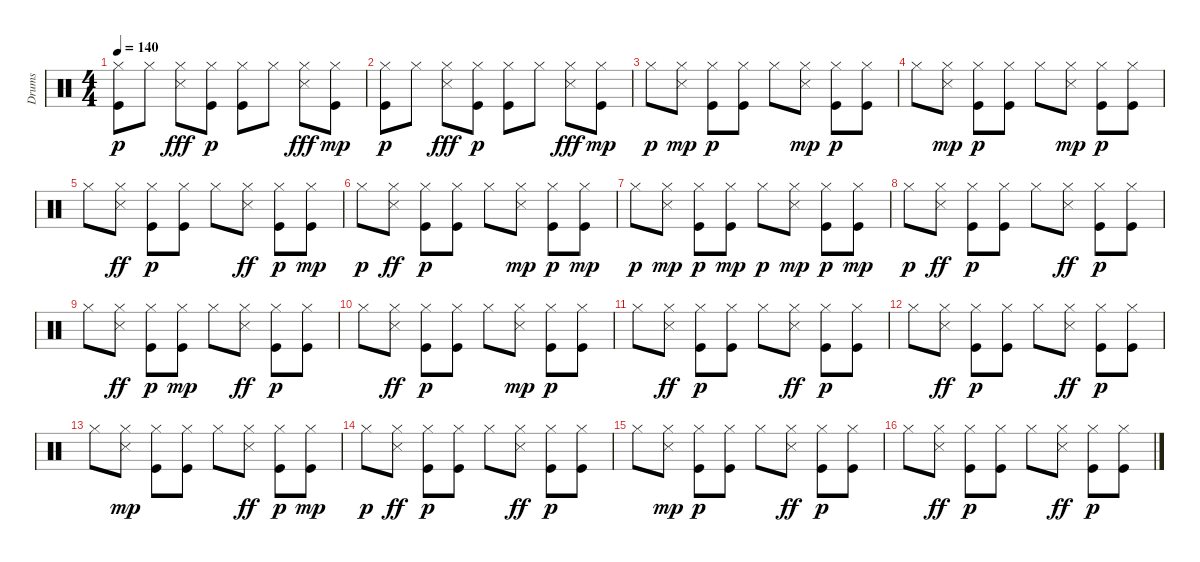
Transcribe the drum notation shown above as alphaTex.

\track ("Drums" "Drums") {instrument percussion}
\staff {score}
\articulation defaults
\ts (4 4)
\tempo 140
\clef neutral
\ks c
("Kick (hit)" "Hi-Hat (closed)").8{dy p} "Hi-Hat (closed)".8 ("Hi-Hat (closed)" "Snare (side stick) 3").8{dy fff} ("Kick (hit)" "Hi-Hat (closed)").8{dy p} ("Kick (hit)" "Hi-Hat (closed)").8 "Hi-Hat (closed)".8 ("Hi-Hat (closed)" "Snare (side stick) 3").8{dy fff} ("Hi-Hat (closed)" "Kick (hit)").8{dy mp} |
("Kick (hit)" "Hi-Hat (closed)").8{dy p} "Hi-Hat (closed)".8 ("Hi-Hat (closed)" "Snare (side stick) 3").8{dy fff} ("Kick (hit)" "Hi-Hat (closed)").8{dy p} ("Kick (hit)" "Hi-Hat (closed)").8 "Hi-Hat (closed)".8 ("Hi-Hat (closed)" "Snare (side stick) 3").8{dy fff} ("Hi-Hat (closed)" "Kick (hit)").8{dy mp} |
"Hi-Hat (closed)".8{dy p} ("Hi-Hat (closed)" "Snare (side stick) 3").8{dy mp} ("Kick (hit)" "Hi-Hat (closed)").8{dy p} ("Kick (hit)" "Hi-Hat (closed)").8 "Hi-Hat (closed)".8 ("Hi-Hat (closed)" "Snare (side stick) 3").8{dy mp} ("Hi-Hat (closed)" "Kick (hit)").8{dy p} ("Hi-Hat (closed)" "Kick (hit)").8 |
"Hi-Hat (closed)".8 ("Hi-Hat (closed)" "Snare (side stick) 3").8{dy mp} ("Kick (hit)" "Hi-Hat (closed)").8{dy p} ("Kick (hit)" "Hi-Hat (closed)").8 "Hi-Hat (closed)".8 ("Snare (side stick) 3" "Hi-Hat (closed)").8{dy mp} ("Hi-Hat (closed)" "Kick (hit)").8{dy p} ("Hi-Hat (closed)" "Kick (hit)").8 |
"Hi-Hat (closed)".8 ("Hi-Hat (closed)" "Snare (side stick) 3").8{dy ff} ("Kick (hit)" "Hi-Hat (closed)").8{dy p} ("Kick (hit)" "Hi-Hat (closed)").8 "Hi-Hat (closed)".8 ("Hi-Hat (closed)" "Snare (side stick) 3").8{dy ff} ("Hi-Hat (closed)" "Kick (hit)").8{dy p} ("Hi-Hat (closed)" "Kick (hit)").8{dy mp} |
"Hi-Hat (closed)".8{dy p} ("Hi-Hat (closed)" "Snare (side stick) 3").8{dy ff} ("Kick (hit)" "Hi-Hat (closed)").8{dy p} ("Hi-Hat (closed)" "Kick (hit)").8 "Hi-Hat (closed)".8 ("Snare (side stick) 3" "Hi-Hat (closed)").8{dy mp} ("Kick (hit)" "Hi-Hat (closed)").8{dy p} ("Hi-Hat (closed)" "Kick (hit)").8{dy mp} |
"Hi-Hat (closed)".8{dy p} ("Snare (side stick) 3" "Hi-Hat (closed)").8{dy mp} ("Kick (hit)" "Hi-Hat (closed)").8{dy p} ("Hi-Hat (closed)" "Kick (hit)").8{dy mp} "Hi-Hat (closed)".8{dy p} ("Snare (side stick) 3" "Hi-Hat (closed)").8{dy mp} ("Hi-Hat (closed)" "Kick (hit)").8{dy p} ("Hi-Hat (closed)" "Kick (hit)").8{dy mp} |
"Hi-Hat (closed)".8{dy p} ("Hi-Hat (closed)" "Snare (side stick) 3").8{dy ff} ("Hi-Hat (closed)" "Kick (hit)").8{dy p} ("Hi-Hat (closed)" "Kick (hit)").8 "Hi-Hat (closed)".8 ("Hi-Hat (closed)" "Snare (side stick) 3").8{dy ff} ("Hi-Hat (closed)" "Kick (hit)").8{dy p} ("Hi-Hat (closed)" "Kick (hit)").8 |
"Hi-Hat (closed)".8 ("Hi-Hat (closed)" "Snare (side stick) 3").8{dy ff} ("Hi-Hat (closed)" "Kick (hit)").8{dy p} ("Hi-Hat (closed)" "Kick (hit)").8{dy mp} "Hi-Hat (closed)".8 ("Hi-Hat (closed)" "Snare (side stick) 3").8{dy ff} ("Kick (hit)" "Hi-Hat (closed)").8{dy p} ("Hi-Hat (closed)" "Kick (hit)").8 |
"Hi-Hat (closed)".8 ("Hi-Hat (closed)" "Snare (side stick) 3").8{dy ff} ("Hi-Hat (closed)" "Kick (hit)").8{dy p} ("Hi-Hat (closed)" "Kick (hit)").8 "Hi-Hat (closed)".8 ("Snare (side stick) 3" "Hi-Hat (closed)").8{dy mp} ("Hi-Hat (closed)" "Kick (hit)").8{dy p} ("Hi-Hat (closed)" "Kick (hit)").8 |
"Hi-Hat (closed)".8 ("Hi-Hat (closed)" "Snare (side stick) 3").8{dy ff} ("Hi-Hat (closed)" "Kick (hit)").8{dy p} ("Hi-Hat (closed)" "Kick (hit)").8 "Hi-Hat (closed)".8 ("Hi-Hat (closed)" "Snare (side stick) 3").8{dy ff} ("Hi-Hat (closed)" "Kick (hit)").8{dy p} ("Hi-Hat (closed)" "Kick (hit)").8 |
"Hi-Hat (closed)".8 ("Hi-Hat (closed)" "Snare (side stick) 3").8{dy ff} ("Hi-Hat (closed)" "Kick (hit)").8{dy p} ("Hi-Hat (closed)" "Kick (hit)").8 "Hi-Hat (closed)".8 ("Hi-Hat (closed)" "Snare (side stick) 3").8{dy ff} ("Hi-Hat (closed)" "Kick (hit)").8{dy p} ("Hi-Hat (closed)" "Kick (hit)").8 |
"Hi-Hat (closed)".8 ("Snare (side stick) 3" "Hi-Hat (closed)").8{dy mp} ("Kick (hit)" "Hi-Hat (closed)").8 ("Hi-Hat (closed)" "Kick (hit)").8 "Hi-Hat (closed)".8 ("Hi-Hat (closed)" "Snare (side stick) 3").8{dy ff} ("Hi-Hat (closed)" "Kick (hit)").8{dy p} ("Hi-Hat (closed)" "Kick (hit)").8{dy mp} |
"Hi-Hat (closed)".8{dy p} ("Hi-Hat (closed)" "Snare (side stick) 3").8{dy ff} ("Kick (hit)" "Hi-Hat (closed)").8{dy p} ("Kick (hit)" "Hi-Hat (closed)").8 "Hi-Hat (closed)".8 ("Hi-Hat (closed)" "Snare (side stick) 3").8{dy ff} ("Hi-Hat (closed)" "Kick (hit)").8{dy p} ("Hi-Hat (closed)" "Kick (hit)").8 |
"Hi-Hat (closed)".8 ("Snare (side stick) 3" "Hi-Hat (closed)").8{dy mp} ("Kick (hit)" "Hi-Hat (closed)").8{dy p} ("Kick (hit)" "Hi-Hat (closed)").8 "Hi-Hat (closed)".8 ("Hi-Hat (closed)" "Snare (side stick) 3").8{dy ff} ("Hi-Hat (closed)" "Kick (hit)").8{dy p} ("Hi-Hat (closed)" "Kick (hit)").8 |
"Hi-Hat (closed)".8 ("Hi-Hat (closed)" "Snare (side stick) 3").8{dy ff} ("Kick (hit)" "Hi-Hat (closed)").8{dy p} ("Hi-Hat (closed)" "Kick (hit)").8 "Hi-Hat (closed)".8 ("Hi-Hat (closed)" "Snare (side stick) 3").8{dy ff} ("Hi-Hat (closed)" "Kick (hit)").8{dy p} ("Hi-Hat (closed)" "Kick (hit)").8
